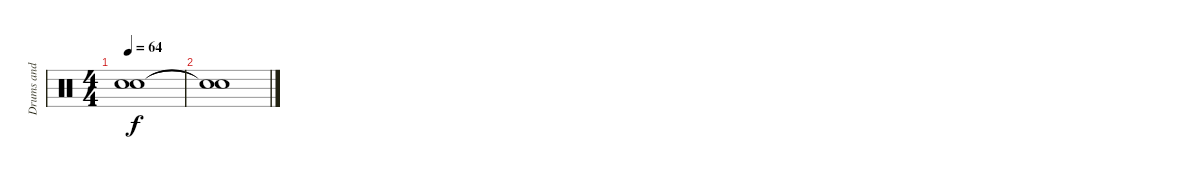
\track ("Drums and Percussion" "Drums and ") {instrument percussion}
\staff {score}
\articulation defaults
\ts (4 4)
\tempo 64
\clef neutral
\ks c
("Snare (hit)"{t} "Snare (hit)"{t}).1{dy f} |
("Snare (hit)"{t} "Snare (hit)"{t}).1
